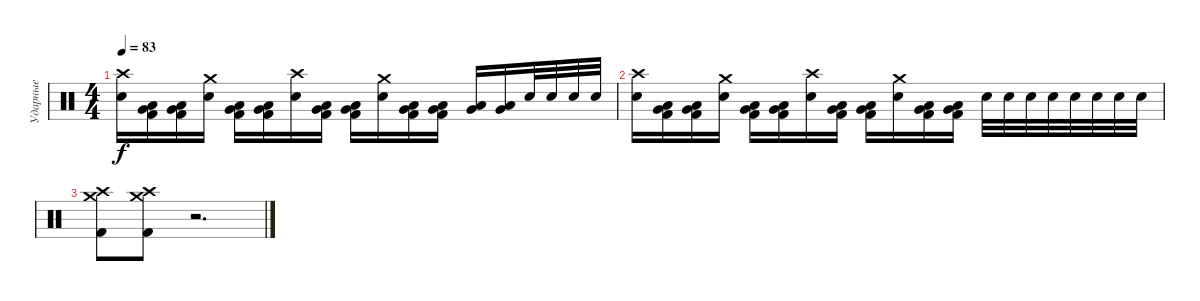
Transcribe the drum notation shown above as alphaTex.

\track ("Ударные" "Ударные") {instrument percussion}
\staff {score}
\articulation defaults
\ts (4 4)
\tempo 83
\clef neutral
\ks c
("Crash high (hit)" "Snare (hit) 2").16{dy f} ("Low Tom (hit)" "Very Low Tom (hit)" "Kick (hit) 2").16 ("Low Tom (hit)" "Very Low Tom (hit)" "Kick (hit) 2").16 ("Crash medium (hit)" "Snare (hit) 2").16 ("Low Tom (hit)" "Very Low Tom (hit)" "Kick (hit) 2").16 ("Low Tom (hit)" "Very Low Tom (hit)" "Kick (hit) 2").16 ("Crash high (hit)" "Snare (hit) 2").16 ("Low Tom (hit)" "Very Low Tom (hit)" "Kick (hit) 2").16 ("Low Tom (hit)" "Very Low Tom (hit)" "Kick (hit) 2").16 ("Crash medium (hit)" "Snare (hit) 2").16 ("Low Tom (hit)" "Very Low Tom (hit)" "Kick (hit) 2").16 ("Low Tom (hit)" "Very Low Tom (hit)" "Kick (hit) 2").16 ("Very Low Tom (hit)" "Low Floor Tom (hit)").16 ("Very Low Tom (hit)" "Low Floor Tom (hit)").16 "Snare (hit) 2".32 "Snare (hit) 2".32 "Snare (hit) 2".32 "Snare (hit) 2".32 |
("Crash high (hit)" "Snare (hit) 2").16 ("Low Tom (hit)" "Very Low Tom (hit)" "Kick (hit) 2").16 ("Low Tom (hit)" "Very Low Tom (hit)" "Kick (hit) 2").16 ("Crash medium (hit)" "Snare (hit) 2").16 ("Low Tom (hit)" "Very Low Tom (hit)" "Kick (hit) 2").16 ("Low Tom (hit)" "Very Low Tom (hit)" "Kick (hit) 2").16 ("Crash high (hit)" "Snare (hit) 2").16 ("Low Tom (hit)" "Very Low Tom (hit)" "Kick (hit) 2").16 ("Low Tom (hit)" "Very Low Tom (hit)" "Kick (hit) 2").16 ("Crash medium (hit)" "Snare (hit) 2").16 ("Low Tom (hit)" "Very Low Tom (hit)" "Kick (hit) 2").16 ("Low Tom (hit)" "Very Low Tom (hit)" "Kick (hit) 2").16 "Snare (hit) 2".32 "Snare (hit) 2".32 "Snare (hit) 2".32 "Snare (hit) 2".32 "Snare (hit) 2".32 "Snare (hit) 2".32 "Snare (hit) 2".32 "Snare (hit) 2".32 |
("Crash high (hit)" "Crash medium (hit)" "Kick (hit) 2").8 ("Crash high (hit)" "Crash medium (hit)" "Kick (hit) 2").8 r.2{d}
